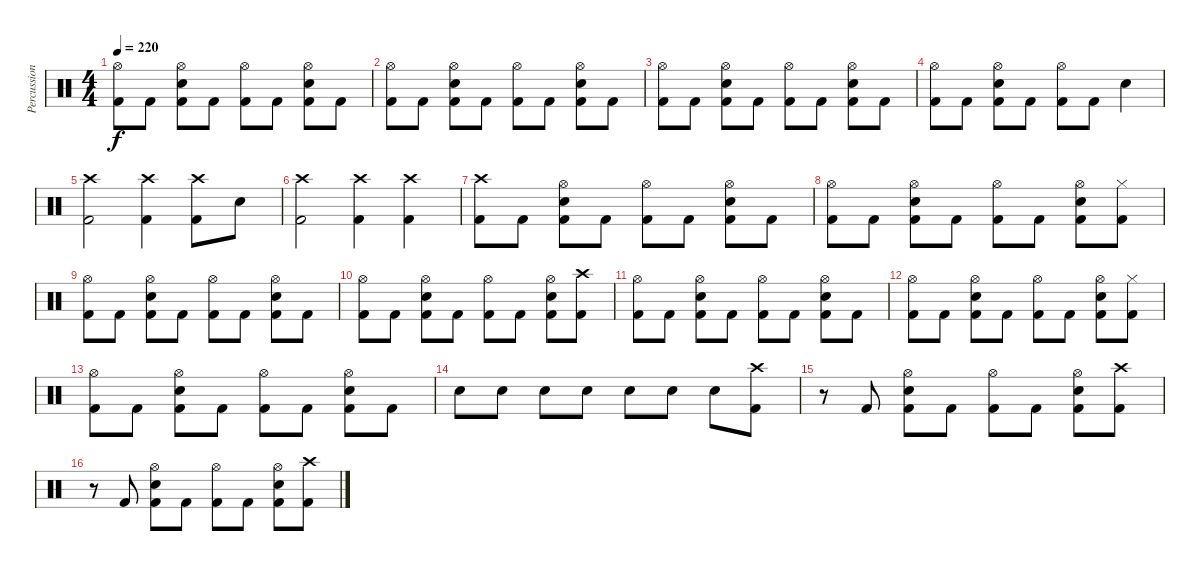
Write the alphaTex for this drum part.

\track ("Percussions" "Percussion") {instrument percussion}
\staff {score}
\articulation defaults
\ts (4 4)
\tempo 220
\clef neutral
\ks c
("Hi-Hat (open)" "Kick (hit) 2").8{dy f} "Kick (hit) 2".8 ("Hi-Hat (open)" "Electric Snare (hit)" "Kick (hit) 2").8 "Kick (hit) 2".8 ("Hi-Hat (open)" "Kick (hit) 2").8 "Kick (hit) 2".8 ("Hi-Hat (open)" "Electric Snare (hit)" "Kick (hit) 2").8 "Kick (hit) 2".8 |
("Hi-Hat (open)" "Kick (hit) 2").8 "Kick (hit) 2".8 ("Hi-Hat (open)" "Electric Snare (hit)" "Kick (hit) 2").8 "Kick (hit) 2".8 ("Hi-Hat (open)" "Kick (hit) 2").8 "Kick (hit) 2".8 ("Hi-Hat (open)" "Electric Snare (hit)" "Kick (hit) 2").8 "Kick (hit) 2".8 |
("Hi-Hat (open)" "Kick (hit) 2").8 "Kick (hit) 2".8 ("Hi-Hat (open)" "Electric Snare (hit)" "Kick (hit) 2").8 "Kick (hit) 2".8 ("Hi-Hat (open)" "Kick (hit) 2").8 "Kick (hit) 2".8 ("Hi-Hat (open)" "Electric Snare (hit)" "Kick (hit) 2").8 "Kick (hit) 2".8 |
("Hi-Hat (open)" "Kick (hit) 2").8 "Kick (hit) 2".8 ("Hi-Hat (open)" "Electric Snare (hit)" "Kick (hit) 2").8 "Kick (hit) 2".8 ("Hi-Hat (open)" "Kick (hit) 2").8 "Kick (hit) 2".8 "Electric Snare (hit)".4 |
("Crash high (hit)" "Kick (hit) 2").2 ("Crash high (hit)" "Kick (hit) 2").4 ("Crash high (hit)" "Kick (hit) 2").8 "Electric Snare (hit)".8 |
("Crash high (hit)" "Kick (hit) 2").2 ("Crash high (hit)" "Kick (hit) 2").4 ("Crash high (hit)" "Kick (hit) 2").4 |
("Crash high (hit)" "Kick (hit) 2").8 "Kick (hit) 2".8 ("Hi-Hat (open)" "Electric Snare (hit)" "Kick (hit) 2").8 "Kick (hit) 2".8 ("Hi-Hat (open)" "Kick (hit) 2").8 "Kick (hit) 2".8 ("Hi-Hat (open)" "Electric Snare (hit)" "Kick (hit) 2").8 "Kick (hit) 2".8 |
("Hi-Hat (open)" "Kick (hit) 2").8 "Kick (hit) 2".8 ("Hi-Hat (open)" "Electric Snare (hit)" "Kick (hit) 2").8 "Kick (hit) 2".8 ("Hi-Hat (open)" "Kick (hit) 2").8 "Kick (hit) 2".8 ("Hi-Hat (open)" "Electric Snare (hit)" "Kick (hit) 2").8 ("Hi-Hat (closed)" "Kick (hit) 2").8 |
("Hi-Hat (open)" "Kick (hit) 2").8 "Kick (hit) 2".8 ("Hi-Hat (open)" "Electric Snare (hit)" "Kick (hit) 2").8 "Kick (hit) 2".8 ("Hi-Hat (open)" "Kick (hit) 2").8 "Kick (hit) 2".8 ("Hi-Hat (open)" "Electric Snare (hit)" "Kick (hit) 2").8 "Kick (hit) 2".8 |
("Hi-Hat (open)" "Kick (hit) 2").8 "Kick (hit) 2".8 ("Hi-Hat (open)" "Electric Snare (hit)" "Kick (hit) 2").8 "Kick (hit) 2".8 ("Hi-Hat (open)" "Kick (hit) 2").8 "Kick (hit) 2".8 ("Hi-Hat (open)" "Electric Snare (hit)" "Kick (hit) 2").8 ("Crash high (hit)" "Kick (hit) 2").8 |
("Hi-Hat (open)" "Kick (hit) 2").8 "Kick (hit) 2".8 ("Hi-Hat (open)" "Electric Snare (hit)" "Kick (hit) 2").8 "Kick (hit) 2".8 ("Hi-Hat (open)" "Kick (hit) 2").8 "Kick (hit) 2".8 ("Hi-Hat (open)" "Electric Snare (hit)" "Kick (hit) 2").8 "Kick (hit) 2".8 |
("Hi-Hat (open)" "Kick (hit) 2").8 "Kick (hit) 2".8 ("Hi-Hat (open)" "Electric Snare (hit)" "Kick (hit) 2").8 "Kick (hit) 2".8 ("Hi-Hat (open)" "Kick (hit) 2").8 "Kick (hit) 2".8 ("Hi-Hat (open)" "Electric Snare (hit)" "Kick (hit) 2").8 ("Hi-Hat (closed)" "Kick (hit) 2").8 |
("Hi-Hat (open)" "Kick (hit) 2").8 "Kick (hit) 2".8 ("Hi-Hat (open)" "Electric Snare (hit)" "Kick (hit) 2").8 "Kick (hit) 2".8 ("Hi-Hat (open)" "Kick (hit) 2").8 "Kick (hit) 2".8 ("Hi-Hat (open)" "Electric Snare (hit)" "Kick (hit) 2").8 "Kick (hit) 2".8 |
"Electric Snare (hit)".8 "Electric Snare (hit)".8 "Electric Snare (hit)".8 "Electric Snare (hit)".8 "Electric Snare (hit)".8 "Electric Snare (hit)".8 "Electric Snare (hit)".8 ("Crash high (hit)" "Kick (hit) 2").8 |
r.8 "Kick (hit) 2".8 ("Hi-Hat (open)" "Electric Snare (hit)" "Kick (hit) 2").8 "Kick (hit) 2".8 ("Hi-Hat (open)" "Kick (hit) 2").8 "Kick (hit) 2".8 ("Hi-Hat (open)" "Electric Snare (hit)" "Kick (hit) 2").8 ("Crash high (hit)" "Kick (hit) 2").8 |
r.8 "Kick (hit) 2".8 ("Hi-Hat (open)" "Electric Snare (hit)" "Kick (hit) 2").8 "Kick (hit) 2".8 ("Hi-Hat (open)" "Kick (hit) 2").8 "Kick (hit) 2".8 ("Hi-Hat (open)" "Electric Snare (hit)" "Kick (hit) 2").8 ("Crash high (hit)" "Kick (hit) 2").8
